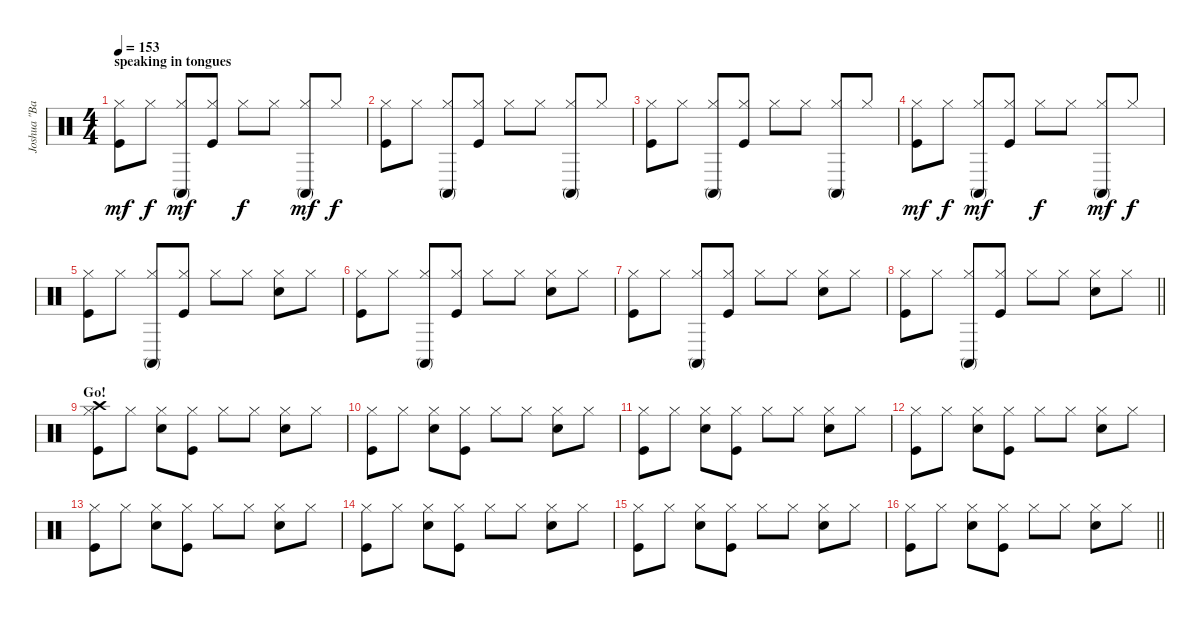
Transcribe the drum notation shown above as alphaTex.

\track ("Joshua \"Baby Duck\" Homme" "Joshua \"Ba") {instrument percussion}
\staff {score}
\articulation defaults
\ts (4 4)
\section ("" "speaking in tongues")
\tempo 153
\clef neutral
\ks c
("Kick (hit)" "Hi-Hat (closed)").8{dy mf} "Hi-Hat (closed)".8{dy f} ("Conga high (mute)" "Hi-Hat (closed)").8{dy mf} ("Kick (hit)" "Hi-Hat (closed)").8 "Hi-Hat (closed)".8{dy f} "Hi-Hat (closed)".8 ("Conga high (mute)" "Hi-Hat (closed)").8{dy mf} "Hi-Hat (closed)".8{dy f} |
("Kick (hit)" "Hi-Hat (closed)").8 "Hi-Hat (closed)".8 ("Conga high (mute)" "Hi-Hat (closed)").8 ("Kick (hit)" "Hi-Hat (closed)").8 "Hi-Hat (closed)".8 "Hi-Hat (closed)".8 ("Conga high (mute)" "Hi-Hat (closed)").8 "Hi-Hat (closed)".8 |
("Kick (hit)" "Hi-Hat (closed)").8 "Hi-Hat (closed)".8 ("Conga high (mute)" "Hi-Hat (closed)").8 ("Kick (hit)" "Hi-Hat (closed)").8 "Hi-Hat (closed)".8 "Hi-Hat (closed)".8 ("Conga high (mute)" "Hi-Hat (closed)").8 "Hi-Hat (closed)".8 |
("Kick (hit)" "Hi-Hat (closed)").8{dy mf} "Hi-Hat (closed)".8{dy f} ("Conga high (mute)" "Hi-Hat (closed)").8{dy mf} ("Kick (hit)" "Hi-Hat (closed)").8 "Hi-Hat (closed)".8{dy f} "Hi-Hat (closed)".8 ("Conga high (mute)" "Hi-Hat (closed)").8{dy mf} "Hi-Hat (closed)".8{dy f} |
("Kick (hit)" "Hi-Hat (closed)").8 "Hi-Hat (closed)".8 ("Conga high (mute)" "Hi-Hat (closed)").8 ("Kick (hit)" "Hi-Hat (closed)").8 "Hi-Hat (closed)".8 "Hi-Hat (closed)".8 ("Electric Snare (hit)" "Hi-Hat (closed)").8 "Hi-Hat (closed)".8 |
("Kick (hit)" "Hi-Hat (closed)").8 "Hi-Hat (closed)".8 ("Conga high (mute)" "Hi-Hat (closed)").8 ("Kick (hit)" "Hi-Hat (closed)").8 "Hi-Hat (closed)".8 "Hi-Hat (closed)".8 ("Electric Snare (hit)" "Hi-Hat (closed)").8 "Hi-Hat (closed)".8 |
("Kick (hit)" "Hi-Hat (closed)").8 "Hi-Hat (closed)".8 ("Conga high (mute)" "Hi-Hat (closed)").8 ("Kick (hit)" "Hi-Hat (closed)").8 "Hi-Hat (closed)".8 "Hi-Hat (closed)".8 ("Electric Snare (hit)" "Hi-Hat (closed)").8 "Hi-Hat (closed)".8 |
\barLineRight lightlight
("Kick (hit)" "Hi-Hat (closed)").8 "Hi-Hat (closed)".8 ("Conga high (mute)" "Hi-Hat (closed)").8 ("Kick (hit)" "Hi-Hat (closed)").8 "Hi-Hat (closed)".8 "Hi-Hat (closed)".8 ("Electric Snare (hit)" "Hi-Hat (closed)").8 "Hi-Hat (closed)".8 |
\section ("" "Go!")
("Kick (hit)" "Hi-Hat (closed)" "Crash high (hit)").8 "Hi-Hat (closed)".8 ("Electric Snare (hit)" "Hi-Hat (closed)").8 ("Kick (hit)" "Hi-Hat (closed)").8 "Hi-Hat (closed)".8 "Hi-Hat (closed)".8 ("Electric Snare (hit)" "Hi-Hat (closed)").8 "Hi-Hat (closed)".8 |
("Kick (hit)" "Hi-Hat (closed)").8 "Hi-Hat (closed)".8 ("Electric Snare (hit)" "Hi-Hat (closed)").8 ("Kick (hit)" "Hi-Hat (closed)").8 "Hi-Hat (closed)".8 "Hi-Hat (closed)".8 ("Electric Snare (hit)" "Hi-Hat (closed)").8 "Hi-Hat (closed)".8 |
("Kick (hit)" "Hi-Hat (closed)").8 "Hi-Hat (closed)".8 ("Electric Snare (hit)" "Hi-Hat (closed)").8 ("Kick (hit)" "Hi-Hat (closed)").8 "Hi-Hat (closed)".8 "Hi-Hat (closed)".8 ("Electric Snare (hit)" "Hi-Hat (closed)").8 "Hi-Hat (closed)".8 |
("Kick (hit)" "Hi-Hat (closed)").8 "Hi-Hat (closed)".8 ("Electric Snare (hit)" "Hi-Hat (closed)").8 ("Kick (hit)" "Hi-Hat (closed)").8 "Hi-Hat (closed)".8 "Hi-Hat (closed)".8 ("Electric Snare (hit)" "Hi-Hat (closed)").8 "Hi-Hat (closed)".8 |
("Kick (hit)" "Hi-Hat (closed)").8 "Hi-Hat (closed)".8 ("Electric Snare (hit)" "Hi-Hat (closed)").8 ("Kick (hit)" "Hi-Hat (closed)").8 "Hi-Hat (closed)".8 "Hi-Hat (closed)".8 ("Electric Snare (hit)" "Hi-Hat (closed)").8 "Hi-Hat (closed)".8 |
("Kick (hit)" "Hi-Hat (closed)").8 "Hi-Hat (closed)".8 ("Electric Snare (hit)" "Hi-Hat (closed)").8 ("Kick (hit)" "Hi-Hat (closed)").8 "Hi-Hat (closed)".8 "Hi-Hat (closed)".8 ("Electric Snare (hit)" "Hi-Hat (closed)").8 "Hi-Hat (closed)".8 |
("Kick (hit)" "Hi-Hat (closed)").8 "Hi-Hat (closed)".8 ("Electric Snare (hit)" "Hi-Hat (closed)").8 ("Kick (hit)" "Hi-Hat (closed)").8 "Hi-Hat (closed)".8 "Hi-Hat (closed)".8 ("Electric Snare (hit)" "Hi-Hat (closed)").8 "Hi-Hat (closed)".8 |
\barLineRight lightlight
("Kick (hit)" "Hi-Hat (closed)").8 "Hi-Hat (closed)".8 ("Electric Snare (hit)" "Hi-Hat (closed)").8 ("Kick (hit)" "Hi-Hat (closed)").8 "Hi-Hat (closed)".8 "Hi-Hat (closed)".8 ("Electric Snare (hit)" "Hi-Hat (closed)").8 "Hi-Hat (closed)".8
